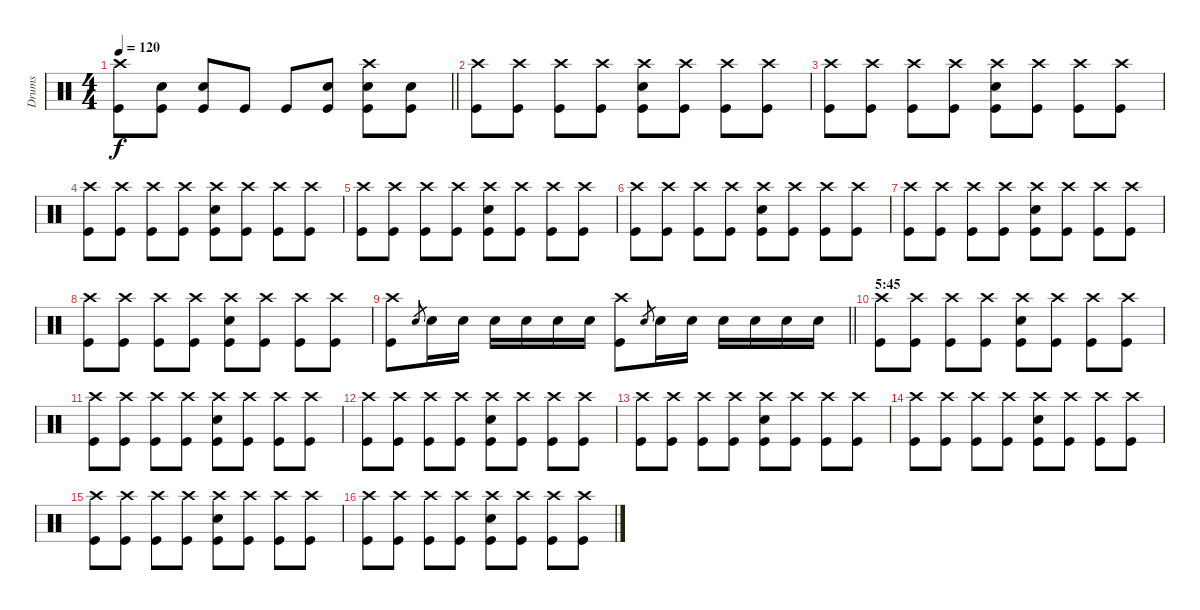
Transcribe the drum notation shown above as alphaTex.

\track ("Drums" "Drums") {instrument percussion}
\staff {score}
\articulation defaults
\ts (4 4)
\tempo 120
\clef neutral
\barLineRight lightlight
\ks c
("Crash high (hit)" "Kick (hit)").8{dy f} ("Electric Snare (hit)" "Kick (hit)").8 ("Electric Snare (hit)" "Kick (hit)").8 "Kick (hit)".8 "Kick (hit)".8 ("Electric Snare (hit)" "Kick (hit)").8 ("Crash high (hit)" "Electric Snare (hit)" "Kick (hit)").8 ("Electric Snare (hit)" "Kick (hit)").8 |
("Crash high (hit)" "Kick (hit)").8 ("Crash high (hit)" "Kick (hit)").8 ("Crash high (hit)" "Kick (hit)").8 ("Crash high (hit)" "Kick (hit)").8 ("Crash high (hit)" "Electric Snare (hit)" "Kick (hit)").8 ("Crash high (hit)" "Kick (hit)").8 ("Crash high (hit)" "Kick (hit)").8 ("Crash high (hit)" "Kick (hit)").8 |
("Crash high (hit)" "Kick (hit)").8 ("Crash high (hit)" "Kick (hit)").8 ("Crash high (hit)" "Kick (hit)").8 ("Crash high (hit)" "Kick (hit)").8 ("Crash high (hit)" "Electric Snare (hit)" "Kick (hit)").8 ("Crash high (hit)" "Kick (hit)").8 ("Crash high (hit)" "Kick (hit)").8 ("Crash high (hit)" "Kick (hit)").8 |
("Crash high (hit)" "Kick (hit)").8 ("Crash high (hit)" "Kick (hit)").8 ("Crash high (hit)" "Kick (hit)").8 ("Crash high (hit)" "Kick (hit)").8 ("Crash high (hit)" "Electric Snare (hit)" "Kick (hit)").8 ("Crash high (hit)" "Kick (hit)").8 ("Crash high (hit)" "Kick (hit)").8 ("Crash high (hit)" "Kick (hit)").8 |
("Crash high (hit)" "Kick (hit)").8 ("Crash high (hit)" "Kick (hit)").8 ("Crash high (hit)" "Kick (hit)").8 ("Crash high (hit)" "Kick (hit)").8 ("Crash high (hit)" "Electric Snare (hit)" "Kick (hit)").8 ("Crash high (hit)" "Kick (hit)").8 ("Crash high (hit)" "Kick (hit)").8 ("Crash high (hit)" "Kick (hit)").8 |
("Crash high (hit)" "Kick (hit)").8 ("Crash high (hit)" "Kick (hit)").8 ("Crash high (hit)" "Kick (hit)").8 ("Crash high (hit)" "Kick (hit)").8 ("Crash high (hit)" "Electric Snare (hit)" "Kick (hit)").8 ("Crash high (hit)" "Kick (hit)").8 ("Crash high (hit)" "Kick (hit)").8 ("Crash high (hit)" "Kick (hit)").8 |
("Crash high (hit)" "Kick (hit)").8 ("Crash high (hit)" "Kick (hit)").8 ("Crash high (hit)" "Kick (hit)").8 ("Crash high (hit)" "Kick (hit)").8 ("Crash high (hit)" "Electric Snare (hit)" "Kick (hit)").8 ("Crash high (hit)" "Kick (hit)").8 ("Crash high (hit)" "Kick (hit)").8 ("Crash high (hit)" "Kick (hit)").8 |
("Crash high (hit)" "Kick (hit)").8 ("Crash high (hit)" "Kick (hit)").8 ("Crash high (hit)" "Kick (hit)").8 ("Crash high (hit)" "Kick (hit)").8 ("Crash high (hit)" "Electric Snare (hit)" "Kick (hit)").8 ("Crash high (hit)" "Kick (hit)").8 ("Crash high (hit)" "Kick (hit)").8 ("Crash high (hit)" "Kick (hit)").8 |
\barLineRight lightlight
("Crash high (hit)" "Kick (hit)").8 "Electric Snare (hit)".8{gr} "Electric Snare (hit)".16 "Electric Snare (hit)".16 "Electric Snare (hit)".16 "Electric Snare (hit)".16 "Electric Snare (hit)".16 "Electric Snare (hit)".16 ("Crash high (hit)" "Kick (hit)").8 "Electric Snare (hit)".8{gr} "Electric Snare (hit)".16 "Electric Snare (hit)".16 "Electric Snare (hit)".16 "Electric Snare (hit)".16 "Electric Snare (hit)".16 "Electric Snare (hit)".16 |
\section ("" "5:45")
("Crash high (hit)" "Kick (hit)").8 ("Crash high (hit)" "Kick (hit)").8 ("Crash high (hit)" "Kick (hit)").8 ("Crash high (hit)" "Kick (hit)").8 ("Crash high (hit)" "Electric Snare (hit)" "Kick (hit)").8 ("Crash high (hit)" "Kick (hit)").8 ("Crash high (hit)" "Kick (hit)").8 ("Crash high (hit)" "Kick (hit)").8 |
("Crash high (hit)" "Kick (hit)").8 ("Crash high (hit)" "Kick (hit)").8 ("Crash high (hit)" "Kick (hit)").8 ("Crash high (hit)" "Kick (hit)").8 ("Crash high (hit)" "Electric Snare (hit)" "Kick (hit)").8 ("Crash high (hit)" "Kick (hit)").8 ("Crash high (hit)" "Kick (hit)").8 ("Crash high (hit)" "Kick (hit)").8 |
("Crash high (hit)" "Kick (hit)").8 ("Crash high (hit)" "Kick (hit)").8 ("Crash high (hit)" "Kick (hit)").8 ("Crash high (hit)" "Kick (hit)").8 ("Crash high (hit)" "Electric Snare (hit)" "Kick (hit)").8 ("Crash high (hit)" "Kick (hit)").8 ("Crash high (hit)" "Kick (hit)").8 ("Crash high (hit)" "Kick (hit)").8 |
("Crash high (hit)" "Kick (hit)").8 ("Crash high (hit)" "Kick (hit)").8 ("Crash high (hit)" "Kick (hit)").8 ("Crash high (hit)" "Kick (hit)").8 ("Crash high (hit)" "Electric Snare (hit)" "Kick (hit)").8 ("Crash high (hit)" "Kick (hit)").8 ("Crash high (hit)" "Kick (hit)").8 ("Crash high (hit)" "Kick (hit)").8 |
("Crash high (hit)" "Kick (hit)").8 ("Crash high (hit)" "Kick (hit)").8 ("Crash high (hit)" "Kick (hit)").8 ("Crash high (hit)" "Kick (hit)").8 ("Crash high (hit)" "Electric Snare (hit)" "Kick (hit)").8 ("Crash high (hit)" "Kick (hit)").8 ("Crash high (hit)" "Kick (hit)").8 ("Crash high (hit)" "Kick (hit)").8 |
("Crash high (hit)" "Kick (hit)").8 ("Crash high (hit)" "Kick (hit)").8 ("Crash high (hit)" "Kick (hit)").8 ("Crash high (hit)" "Kick (hit)").8 ("Crash high (hit)" "Electric Snare (hit)" "Kick (hit)").8 ("Crash high (hit)" "Kick (hit)").8 ("Crash high (hit)" "Kick (hit)").8 ("Crash high (hit)" "Kick (hit)").8 |
("Crash high (hit)" "Kick (hit)").8 ("Crash high (hit)" "Kick (hit)").8 ("Crash high (hit)" "Kick (hit)").8 ("Crash high (hit)" "Kick (hit)").8 ("Crash high (hit)" "Electric Snare (hit)" "Kick (hit)").8 ("Crash high (hit)" "Kick (hit)").8 ("Crash high (hit)" "Kick (hit)").8 ("Crash high (hit)" "Kick (hit)").8
